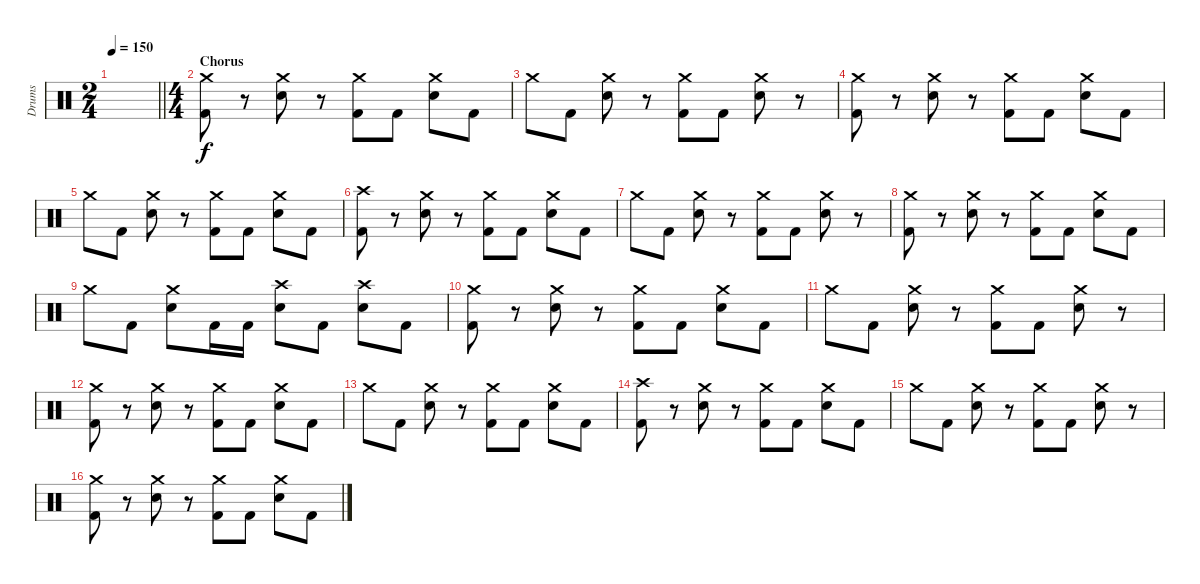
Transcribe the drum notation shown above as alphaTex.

\track ("Drums" "Drums") {instrument percussion}
\staff {score}
\articulation defaults
\ts (2 4)
\tempo 150
\clef neutral
\barLineRight lightlight
\ks c
|
\ts (4 4)
\section ("" "Chorus")
("Crash medium (hit)" "Kick (hit) 2").8 r.8 ("Crash medium (hit)" "Electric Snare (hit)").8 r.8 ("Crash medium (hit)" "Kick (hit) 2").8 "Kick (hit) 2".8 ("Crash medium (hit)" "Electric Snare (hit)").8 "Kick (hit) 2".8 |
"Crash medium (hit)".8 "Kick (hit) 2".8 ("Crash medium (hit)" "Electric Snare (hit)").8 r.8 ("Crash medium (hit)" "Kick (hit) 2").8 "Kick (hit) 2".8 ("Crash medium (hit)" "Electric Snare (hit)").8 r.8 |
("Crash medium (hit)" "Kick (hit) 2").8 r.8 ("Crash medium (hit)" "Electric Snare (hit)").8 r.8 ("Crash medium (hit)" "Kick (hit) 2").8 "Kick (hit) 2".8 ("Crash medium (hit)" "Electric Snare (hit)").8 "Kick (hit) 2".8 |
"Crash medium (hit)".8 "Kick (hit) 2".8 ("Crash medium (hit)" "Electric Snare (hit)").8 r.8 ("Crash medium (hit)" "Kick (hit) 2").8 "Kick (hit) 2".8 ("Crash medium (hit)" "Electric Snare (hit)").8 "Kick (hit) 2".8 |
("Crash high (hit)" "Kick (hit) 2").8 r.8 ("Crash medium (hit)" "Electric Snare (hit)").8 r.8 ("Crash medium (hit)" "Kick (hit) 2").8 "Kick (hit) 2".8 ("Crash medium (hit)" "Electric Snare (hit)").8 "Kick (hit) 2".8 |
"Crash medium (hit)".8 "Kick (hit) 2".8 ("Crash medium (hit)" "Electric Snare (hit)").8 r.8 ("Crash medium (hit)" "Kick (hit) 2").8 "Kick (hit) 2".8 ("Crash medium (hit)" "Electric Snare (hit)").8 r.8 |
("Crash medium (hit)" "Kick (hit) 2").8 r.8 ("Crash medium (hit)" "Electric Snare (hit)").8 r.8 ("Crash medium (hit)" "Kick (hit) 2").8 "Kick (hit) 2".8 ("Crash medium (hit)" "Electric Snare (hit)").8 "Kick (hit) 2".8 |
"Crash medium (hit)".8 "Kick (hit) 2".8 ("Crash medium (hit)" "Electric Snare (hit)").8 "Kick (hit) 2".16 "Kick (hit) 2".16 ("Crash high (hit)" "Electric Snare (hit)").8 "Kick (hit) 2".8 ("Crash high (hit)" "Electric Snare (hit)").8 "Kick (hit) 2".8 |
("Crash medium (hit)" "Kick (hit) 2").8 r.8 ("Crash medium (hit)" "Electric Snare (hit)").8 r.8 ("Crash medium (hit)" "Kick (hit) 2").8 "Kick (hit) 2".8 ("Crash medium (hit)" "Electric Snare (hit)").8 "Kick (hit) 2".8 |
"Crash medium (hit)".8 "Kick (hit) 2".8 ("Crash medium (hit)" "Electric Snare (hit)").8 r.8 ("Crash medium (hit)" "Kick (hit) 2").8 "Kick (hit) 2".8 ("Crash medium (hit)" "Electric Snare (hit)").8 r.8 |
("Crash medium (hit)" "Kick (hit) 2").8 r.8 ("Crash medium (hit)" "Electric Snare (hit)").8 r.8 ("Crash medium (hit)" "Kick (hit) 2").8 "Kick (hit) 2".8 ("Crash medium (hit)" "Electric Snare (hit)").8 "Kick (hit) 2".8 |
"Crash medium (hit)".8 "Kick (hit) 2".8 ("Crash medium (hit)" "Electric Snare (hit)").8 r.8 ("Crash medium (hit)" "Kick (hit) 2").8 "Kick (hit) 2".8 ("Crash medium (hit)" "Electric Snare (hit)").8 "Kick (hit) 2".8 |
("Crash high (hit)" "Kick (hit) 2").8 r.8 ("Crash medium (hit)" "Electric Snare (hit)").8 r.8 ("Crash medium (hit)" "Kick (hit) 2").8 "Kick (hit) 2".8 ("Crash medium (hit)" "Electric Snare (hit)").8 "Kick (hit) 2".8 |
"Crash medium (hit)".8 "Kick (hit) 2".8 ("Crash medium (hit)" "Electric Snare (hit)").8 r.8 ("Crash medium (hit)" "Kick (hit) 2").8 "Kick (hit) 2".8 ("Crash medium (hit)" "Electric Snare (hit)").8 r.8 |
("Crash medium (hit)" "Kick (hit) 2").8 r.8 ("Crash medium (hit)" "Electric Snare (hit)").8 r.8 ("Crash medium (hit)" "Kick (hit) 2").8 "Kick (hit) 2".8 ("Crash medium (hit)" "Electric Snare (hit)").8 "Kick (hit) 2".8
